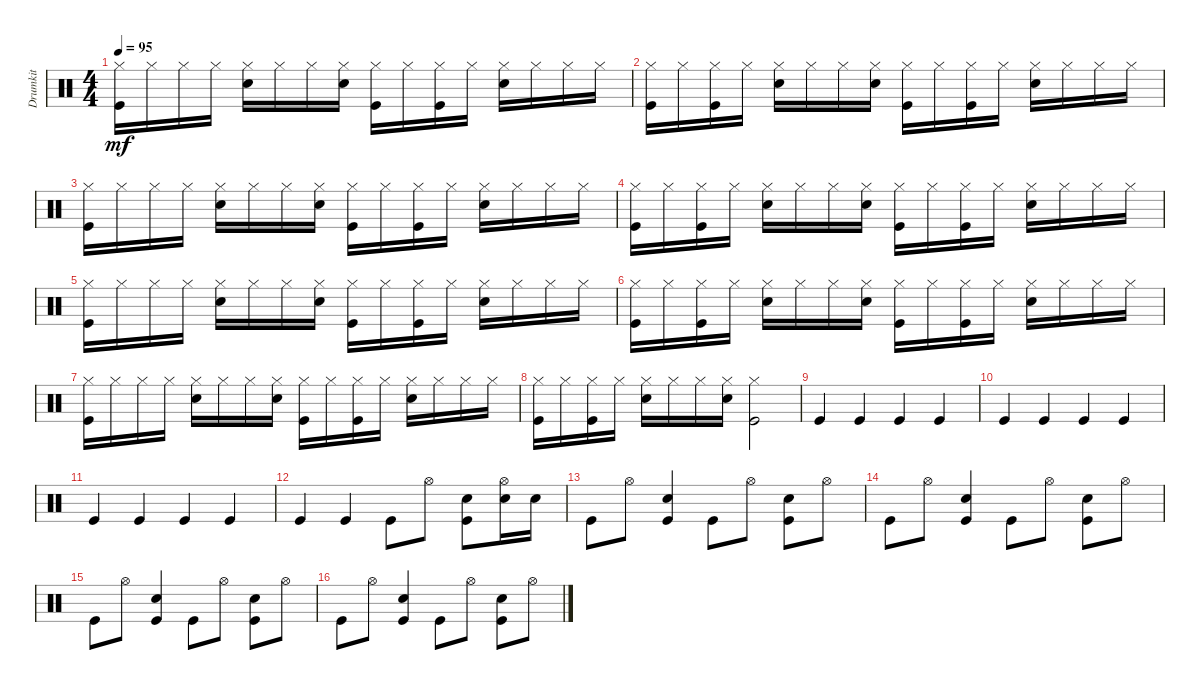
\track ("Drumkit" "Drumkit") {instrument percussion}
\staff {score}
\articulation defaults
\ts (4 4)
\tempo 95
\clef neutral
\ks c
("Hi-Hat (closed)" "Kick (hit)").16{dy mf} "Hi-Hat (closed)".16 "Hi-Hat (closed)".16 "Hi-Hat (closed)".16 ("Snare (hit) 2" "Hi-Hat (closed)").16 "Hi-Hat (closed)".16 "Hi-Hat (closed)".16 ("Snare (hit) 2" "Hi-Hat (closed)").16 ("Hi-Hat (closed)" "Kick (hit)").16 "Hi-Hat (closed)".16 ("Hi-Hat (closed)" "Kick (hit)").16 "Hi-Hat (closed)".16 ("Snare (hit) 2" "Hi-Hat (closed)").16 "Hi-Hat (closed)".16 "Hi-Hat (closed)".16 "Hi-Hat (closed)".16 |
("Hi-Hat (closed)" "Kick (hit)").16 "Hi-Hat (closed)".16 ("Hi-Hat (closed)" "Kick (hit)").16 "Hi-Hat (closed)".16 ("Snare (hit) 2" "Hi-Hat (closed)").16 "Hi-Hat (closed)".16 "Hi-Hat (closed)".16 ("Snare (hit) 2" "Hi-Hat (closed)").16 ("Hi-Hat (closed)" "Kick (hit)").16 "Hi-Hat (closed)".16 ("Hi-Hat (closed)" "Kick (hit)").16 "Hi-Hat (closed)".16 ("Snare (hit) 2" "Hi-Hat (closed)").16 "Hi-Hat (closed)".16 "Hi-Hat (closed)".16 "Hi-Hat (closed)".16 |
("Hi-Hat (closed)" "Kick (hit)").16 "Hi-Hat (closed)".16 "Hi-Hat (closed)".16 "Hi-Hat (closed)".16 ("Snare (hit) 2" "Hi-Hat (closed)").16 "Hi-Hat (closed)".16 "Hi-Hat (closed)".16 ("Snare (hit) 2" "Hi-Hat (closed)").16 ("Hi-Hat (closed)" "Kick (hit)").16 "Hi-Hat (closed)".16 ("Hi-Hat (closed)" "Kick (hit)").16 "Hi-Hat (closed)".16 ("Snare (hit) 2" "Hi-Hat (closed)").16 "Hi-Hat (closed)".16 "Hi-Hat (closed)".16 "Hi-Hat (closed)".16 |
("Hi-Hat (closed)" "Kick (hit)").16 "Hi-Hat (closed)".16 ("Hi-Hat (closed)" "Kick (hit)").16 "Hi-Hat (closed)".16 ("Snare (hit) 2" "Hi-Hat (closed)").16 "Hi-Hat (closed)".16 "Hi-Hat (closed)".16 ("Snare (hit) 2" "Hi-Hat (closed)").16 ("Hi-Hat (closed)" "Kick (hit)").16 "Hi-Hat (closed)".16 ("Hi-Hat (closed)" "Kick (hit)").16 "Hi-Hat (closed)".16 ("Snare (hit) 2" "Hi-Hat (closed)").16 "Hi-Hat (closed)".16 "Hi-Hat (closed)".16 "Hi-Hat (closed)".16 |
("Hi-Hat (closed)" "Kick (hit)").16 "Hi-Hat (closed)".16 "Hi-Hat (closed)".16 "Hi-Hat (closed)".16 ("Snare (hit) 2" "Hi-Hat (closed)").16 "Hi-Hat (closed)".16 "Hi-Hat (closed)".16 ("Snare (hit) 2" "Hi-Hat (closed)").16 ("Hi-Hat (closed)" "Kick (hit)").16 "Hi-Hat (closed)".16 ("Hi-Hat (closed)" "Kick (hit)").16 "Hi-Hat (closed)".16 ("Snare (hit) 2" "Hi-Hat (closed)").16 "Hi-Hat (closed)".16 "Hi-Hat (closed)".16 "Hi-Hat (closed)".16 |
("Hi-Hat (closed)" "Kick (hit)").16 "Hi-Hat (closed)".16 ("Hi-Hat (closed)" "Kick (hit)").16 "Hi-Hat (closed)".16 ("Snare (hit) 2" "Hi-Hat (closed)").16 "Hi-Hat (closed)".16 "Hi-Hat (closed)".16 ("Snare (hit) 2" "Hi-Hat (closed)").16 ("Hi-Hat (closed)" "Kick (hit)").16 "Hi-Hat (closed)".16 ("Hi-Hat (closed)" "Kick (hit)").16 "Hi-Hat (closed)".16 ("Snare (hit) 2" "Hi-Hat (closed)").16 "Hi-Hat (closed)".16 "Hi-Hat (closed)".16 "Hi-Hat (closed)".16 |
("Hi-Hat (closed)" "Kick (hit)").16 "Hi-Hat (closed)".16 "Hi-Hat (closed)".16 "Hi-Hat (closed)".16 ("Snare (hit) 2" "Hi-Hat (closed)").16 "Hi-Hat (closed)".16 "Hi-Hat (closed)".16 ("Snare (hit) 2" "Hi-Hat (closed)").16 ("Hi-Hat (closed)" "Kick (hit)").16 "Hi-Hat (closed)".16 ("Hi-Hat (closed)" "Kick (hit)").16 "Hi-Hat (closed)".16 ("Snare (hit) 2" "Hi-Hat (closed)").16 "Hi-Hat (closed)".16 "Hi-Hat (closed)".16 "Hi-Hat (closed)".16 |
("Hi-Hat (closed)" "Kick (hit)").16 "Hi-Hat (closed)".16 ("Hi-Hat (closed)" "Kick (hit)").16 "Hi-Hat (closed)".16 ("Snare (hit) 2" "Hi-Hat (closed)").16 "Hi-Hat (closed)".16 "Hi-Hat (closed)".16 ("Snare (hit) 2" "Hi-Hat (closed)").16 ("Hi-Hat (closed)" "Kick (hit)").2 |
"Kick (hit)".4 "Kick (hit)".4 "Kick (hit)".4 "Kick (hit)".4 |
"Kick (hit)".4 "Kick (hit)".4 "Kick (hit)".4 "Kick (hit)".4 |
"Kick (hit)".4 "Kick (hit)".4 "Kick (hit)".4 "Kick (hit)".4 |
"Kick (hit)".4 "Kick (hit)".4 "Kick (hit)".8 "Hi-Hat (open)".8 ("Snare (hit) 2" "Kick (hit)").8 ("Hi-Hat (open)" "Snare (hit) 2").16 "Snare (hit) 2".16 |
"Kick (hit)".8 "Hi-Hat (open)".8 ("Snare (hit) 2" "Kick (hit)").4 "Kick (hit)".8 "Hi-Hat (open)".8 ("Snare (hit) 2" "Kick (hit)").8 "Hi-Hat (open)".8 |
"Kick (hit)".8 "Hi-Hat (open)".8 ("Snare (hit) 2" "Kick (hit)").4 "Kick (hit)".8 "Hi-Hat (open)".8 ("Snare (hit) 2" "Kick (hit)").8 "Hi-Hat (open)".8 |
"Kick (hit)".8 "Hi-Hat (open)".8 ("Snare (hit) 2" "Kick (hit)").4 "Kick (hit)".8 "Hi-Hat (open)".8 ("Snare (hit) 2" "Kick (hit)").8 "Hi-Hat (open)".8 |
"Kick (hit)".8 "Hi-Hat (open)".8 ("Snare (hit) 2" "Kick (hit)").4 "Kick (hit)".8 "Hi-Hat (open)".8 ("Snare (hit) 2" "Kick (hit)").8 "Hi-Hat (open)".8
